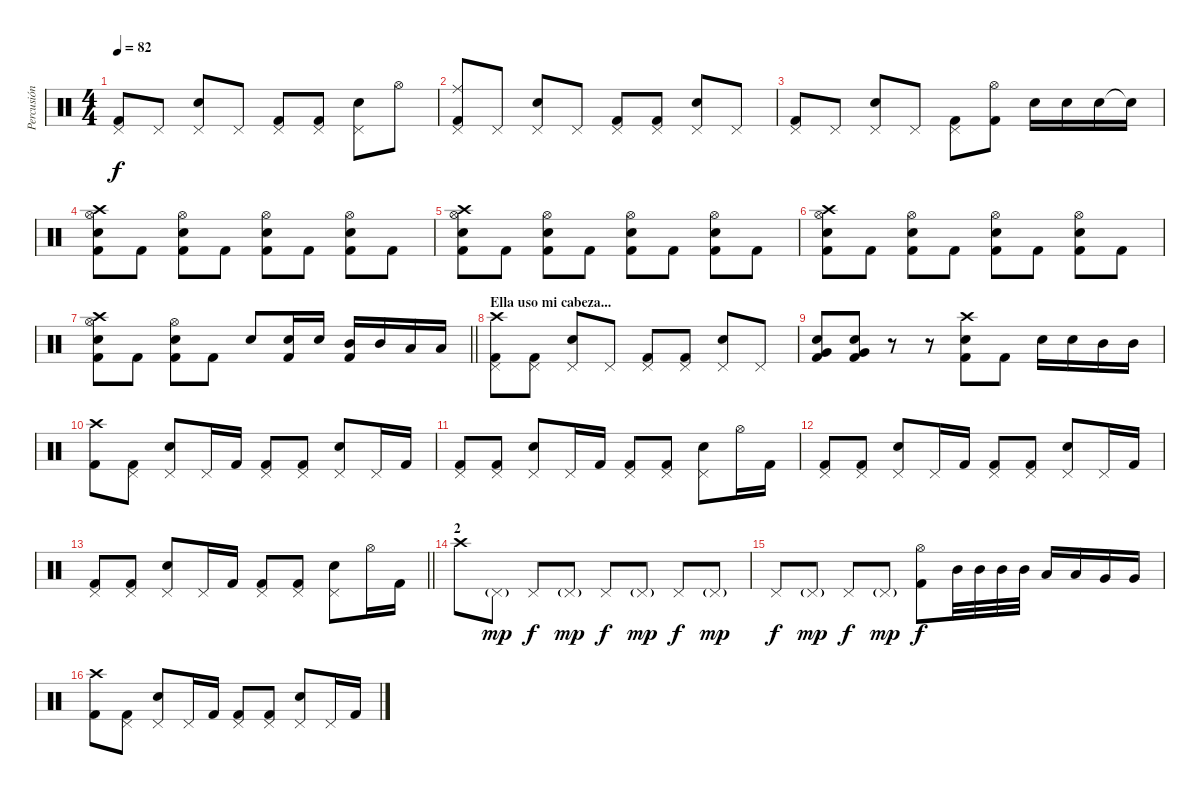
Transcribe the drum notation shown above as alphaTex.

\track ("Percusión" "Percusión") {instrument percussion}
\staff {score}
\articulation defaults
\ts (4 4)
\tempo 82
\clef neutral
\ks c
("Pedal Hi-Hat (hit)" "Kick (hit) 2").8{dy f} "Pedal Hi-Hat (hit)".8 ("Pedal Hi-Hat (hit)" "Snare (hit) 2").8 "Pedal Hi-Hat (hit)".8 ("Pedal Hi-Hat (hit)" "Kick (hit) 2").8 ("Pedal Hi-Hat (hit)" "Kick (hit) 2").8 ("Pedal Hi-Hat (hit)" "Snare (hit) 2").8 "Hi-Hat (open)".8 |
("Ride (middle)" "Pedal Hi-Hat (hit)" "Kick (hit) 2").8 "Pedal Hi-Hat (hit)".8 ("Pedal Hi-Hat (hit)" "Snare (hit) 2").8 "Pedal Hi-Hat (hit)".8 ("Pedal Hi-Hat (hit)" "Kick (hit) 2").8 ("Pedal Hi-Hat (hit)" "Kick (hit) 2").8 ("Pedal Hi-Hat (hit)" "Snare (hit) 2").8 "Pedal Hi-Hat (hit)".8 |
("Pedal Hi-Hat (hit)" "Kick (hit) 2").8 "Pedal Hi-Hat (hit)".8 ("Pedal Hi-Hat (hit)" "Snare (hit) 2").8 "Pedal Hi-Hat (hit)".8 ("Pedal Hi-Hat (hit)" "Kick (hit) 2").8 ("Hi-Hat (open)" "Kick (hit) 2").8 "Snare (hit) 2".16 "Snare (hit) 2".16 "Snare (hit) 2".16 "Snare (hit)"{t}.16 |
("Crash high (hit)" "Hi-Hat (open)" "Snare (hit) 2" "Kick (hit) 2").8 "Kick (hit) 2".8 ("Hi-Hat (open)" "Snare (hit) 2" "Kick (hit) 2").8 "Kick (hit) 2".8 ("Hi-Hat (open)" "Snare (hit) 2" "Kick (hit) 2").8 "Kick (hit) 2".8 ("Hi-Hat (open)" "Snare (hit) 2" "Kick (hit) 2").8 "Kick (hit) 2".8 |
("Crash high (hit)" "Hi-Hat (open)" "Snare (hit) 2" "Kick (hit) 2").8 "Kick (hit) 2".8 ("Hi-Hat (open)" "Snare (hit) 2" "Kick (hit) 2").8 "Kick (hit) 2".8 ("Hi-Hat (open)" "Snare (hit) 2" "Kick (hit) 2").8 "Kick (hit) 2".8 ("Hi-Hat (open)" "Snare (hit) 2" "Kick (hit) 2").8 "Kick (hit) 2".8 |
("Crash high (hit)" "Hi-Hat (open)" "Snare (hit) 2" "Kick (hit) 2").8 "Kick (hit) 2".8 ("Hi-Hat (open)" "Snare (hit) 2" "Kick (hit) 2").8 "Kick (hit) 2".8 ("Hi-Hat (open)" "Snare (hit) 2" "Kick (hit) 2").8 "Kick (hit) 2".8 ("Hi-Hat (open)" "Snare (hit) 2" "Kick (hit) 2").8 "Kick (hit) 2".8 |
\barLineRight lightlight
("Crash high (hit)" "Hi-Hat (open)" "Snare (hit) 2" "Kick (hit) 2").8 "Kick (hit) 2".8 ("Hi-Hat (open)" "Snare (hit) 2" "Kick (hit) 2").8 "Kick (hit) 2".8 "Snare (hit) 2".8 ("Snare (hit) 2" "Kick (hit) 2").16 "Snare (hit) 2".16 ("Mid Tom (hit)" "Kick (hit) 2").16 "Mid Tom (hit)".16 "Low Tom (hit)".16 "Low Tom (hit)".16 |
\section ("" "Ella uso mi cabeza...")
("Crash high (hit)" "Pedal Hi-Hat (hit)" "Kick (hit) 2").8 ("Pedal Hi-Hat (hit)" "Kick (hit) 2").8 ("Pedal Hi-Hat (hit)" "Snare (hit) 2").8 "Pedal Hi-Hat (hit)".8 ("Pedal Hi-Hat (hit)" "Kick (hit) 2").8 ("Pedal Hi-Hat (hit)" "Kick (hit) 2").8 ("Pedal Hi-Hat (hit)" "Snare (hit) 2").8 "Pedal Hi-Hat (hit)".8 |
("Very Low Tom (hit)" "Snare (hit) 2" "Kick (hit) 2").8 ("Very Low Tom (hit)" "Snare (hit) 2" "Kick (hit) 2").8 r.8 r.8 ("Crash high (hit)" "Snare (hit) 2" "Kick (hit) 2").8 "Kick (hit) 2".8 "Snare (hit) 2".16 "Snare (hit) 2".16 "Mid Tom (hit)".16 "Mid Tom (hit)".16 |
("Crash high (hit)" "Kick (hit) 2").8 ("Pedal Hi-Hat (hit)" "Kick (hit) 2").8 ("Pedal Hi-Hat (hit)" "Snare (hit) 2").8 "Pedal Hi-Hat (hit)".16 "Kick (hit) 2".16 ("Pedal Hi-Hat (hit)" "Kick (hit) 2").8 ("Pedal Hi-Hat (hit)" "Kick (hit) 2").8 ("Pedal Hi-Hat (hit)" "Snare (hit) 2").8 "Pedal Hi-Hat (hit)".16 "Kick (hit) 2".16 |
("Pedal Hi-Hat (hit)" "Kick (hit) 2").8 ("Pedal Hi-Hat (hit)" "Kick (hit) 2").8 ("Pedal Hi-Hat (hit)" "Snare (hit) 2").8 "Pedal Hi-Hat (hit)".16 "Kick (hit) 2".16 ("Pedal Hi-Hat (hit)" "Kick (hit) 2").8 ("Pedal Hi-Hat (hit)" "Kick (hit) 2").8 ("Pedal Hi-Hat (hit)" "Snare (hit) 2").8 "Hi-Hat (open)".16 "Kick (hit) 2".16 |
("Pedal Hi-Hat (hit)" "Kick (hit) 2").8 ("Pedal Hi-Hat (hit)" "Kick (hit) 2").8 ("Pedal Hi-Hat (hit)" "Snare (hit) 2").8 "Pedal Hi-Hat (hit)".16 "Kick (hit) 2".16 ("Pedal Hi-Hat (hit)" "Kick (hit) 2").8 ("Pedal Hi-Hat (hit)" "Kick (hit) 2").8 ("Pedal Hi-Hat (hit)" "Snare (hit) 2").8 "Pedal Hi-Hat (hit)".16 "Kick (hit) 2".16 |
\barLineRight lightlight
("Pedal Hi-Hat (hit)" "Kick (hit) 2").8 ("Pedal Hi-Hat (hit)" "Kick (hit) 2").8 ("Pedal Hi-Hat (hit)" "Snare (hit) 2").8 "Pedal Hi-Hat (hit)".16 "Kick (hit) 2".16 ("Pedal Hi-Hat (hit)" "Kick (hit) 2").8 ("Pedal Hi-Hat (hit)" "Kick (hit) 2").8 ("Pedal Hi-Hat (hit)" "Snare (hit) 2").8 "Hi-Hat (open)".16 "Kick (hit) 2".16 |
\section ("" "2")
"Crash high (hit)".8 "Pedal Hi-Hat (hit)"{g}.8{dy mp} "Pedal Hi-Hat (hit)".8{dy f} "Pedal Hi-Hat (hit)"{g}.8{dy mp} "Pedal Hi-Hat (hit)".8{dy f} "Pedal Hi-Hat (hit)"{g}.8{dy mp} "Pedal Hi-Hat (hit)".8{dy f} "Pedal Hi-Hat (hit)"{g}.8{dy mp} |
"Pedal Hi-Hat (hit)".8{dy f} "Pedal Hi-Hat (hit)"{g}.8{dy mp} "Pedal Hi-Hat (hit)".8{dy f} "Pedal Hi-Hat (hit)"{g}.8{dy mp} ("Hi-Hat (open)" "Kick (hit) 2").8{dy f} "Mid Tom (hit)".32 "Mid Tom (hit)".32 "Mid Tom (hit)".32 "Mid Tom (hit)".32 "Low Tom (hit)".16 "Low Tom (hit)".16 "Very Low Tom (hit)".16 "Very Low Tom (hit)".16 |
("Crash high (hit)" "Kick (hit) 2").8 ("Pedal Hi-Hat (hit)" "Kick (hit) 2").8 ("Pedal Hi-Hat (hit)" "Snare (hit) 2").8 "Pedal Hi-Hat (hit)".16 "Kick (hit) 2".16 ("Pedal Hi-Hat (hit)" "Kick (hit) 2").8 ("Pedal Hi-Hat (hit)" "Kick (hit) 2").8 ("Pedal Hi-Hat (hit)" "Snare (hit) 2").8 "Pedal Hi-Hat (hit)".16 "Kick (hit) 2".16
